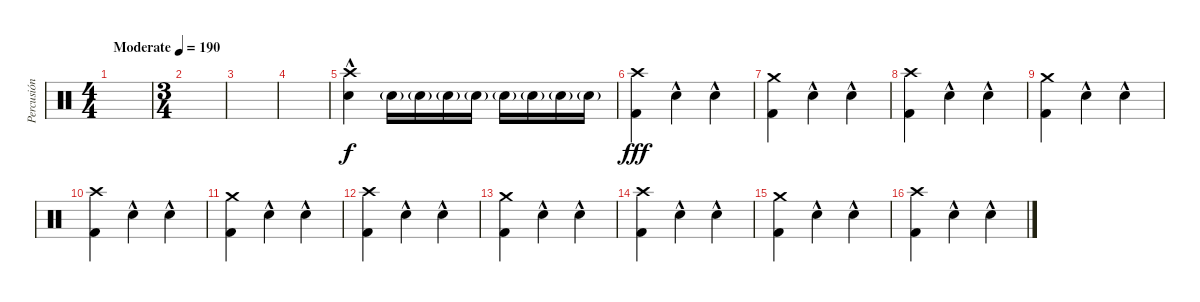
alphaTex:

\track ("Percusión" "Percusión") {instrument percussion}
\staff {score}
\articulation defaults
\ts (4 4)
\tempo (190 "Moderate")
\clef neutral
\ks c
|
\ts (3 4)
|
|
|
("Crash high (hit)" "Electric Snare (hit)"{hac}).4 "Electric Snare (hit)"{g}.16{dy f} "Electric Snare (hit)"{g}.16 "Electric Snare (hit)"{g}.16 "Electric Snare (hit)"{g}.16 "Electric Snare (hit)"{g}.16 "Electric Snare (hit)"{g}.16 "Electric Snare (hit)"{g}.16 "Electric Snare (hit)"{g}.16 |
("Crash high (hit)" "Kick (hit) 2").4{dy fff} "Electric Snare (hit)"{hac}.4 "Electric Snare (hit)"{hac}.4 |
("Crash medium (hit)" "Kick (hit) 2").4 "Electric Snare (hit)"{hac}.4 "Electric Snare (hit)"{hac}.4 |
("Crash high (hit)" "Kick (hit) 2").4 "Electric Snare (hit)"{hac}.4 "Electric Snare (hit)"{hac}.4 |
("Crash medium (hit)" "Kick (hit) 2").4 "Electric Snare (hit)"{hac}.4 "Electric Snare (hit)"{hac}.4 |
("Crash high (hit)" "Kick (hit) 2").4 "Electric Snare (hit)"{hac}.4 "Electric Snare (hit)"{hac}.4 |
("Crash medium (hit)" "Kick (hit) 2").4 "Electric Snare (hit)"{hac}.4 "Electric Snare (hit)"{hac}.4 |
("Crash high (hit)" "Kick (hit) 2").4 "Electric Snare (hit)"{hac}.4 "Electric Snare (hit)"{hac}.4 |
("Crash medium (hit)" "Kick (hit) 2").4 "Electric Snare (hit)"{hac}.4 "Electric Snare (hit)"{hac}.4 |
("Crash high (hit)" "Kick (hit) 2").4 "Electric Snare (hit)"{hac}.4 "Electric Snare (hit)"{hac}.4 |
("Crash medium (hit)" "Kick (hit) 2").4 "Electric Snare (hit)"{hac}.4 "Electric Snare (hit)"{hac}.4 |
("Crash high (hit)" "Kick (hit) 2").4 "Electric Snare (hit)"{hac}.4 "Electric Snare (hit)"{hac}.4
